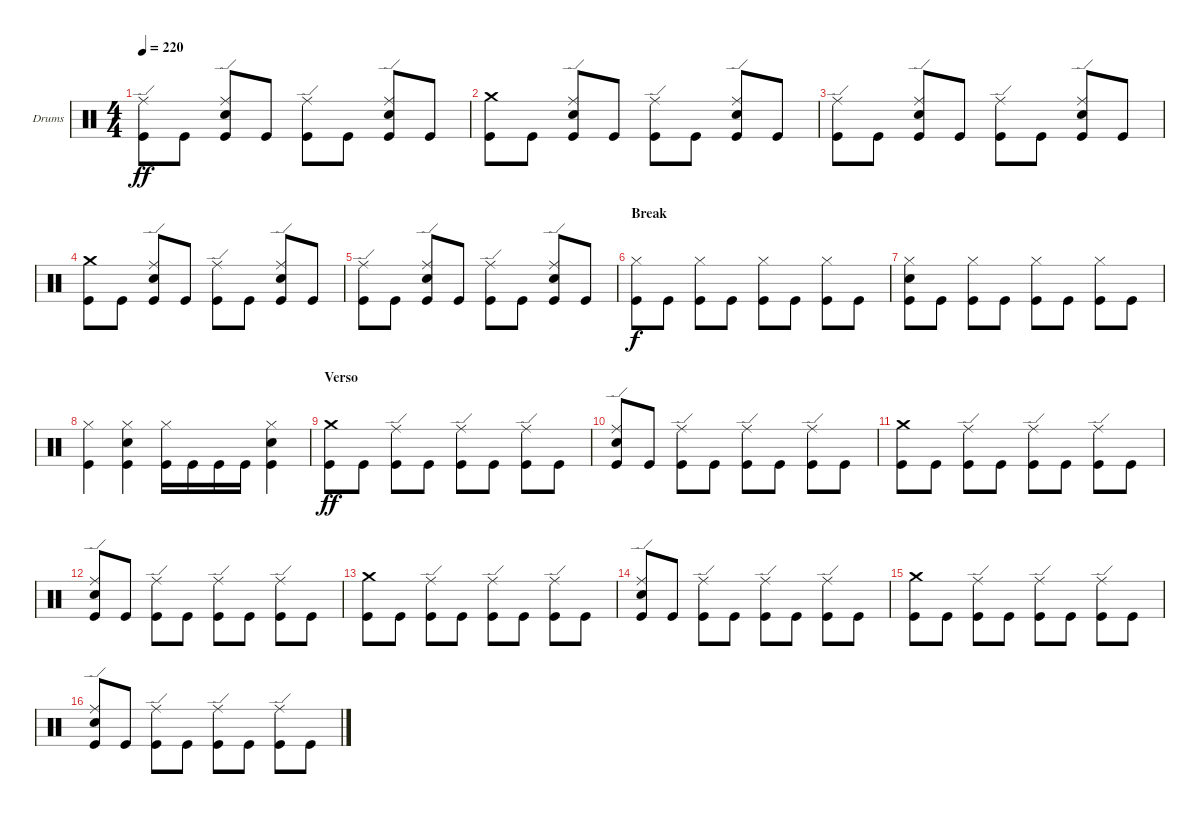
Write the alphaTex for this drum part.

\defaultSystemsLayout 4
\bracketExtendMode groupsimilarinstruments
\firstSystemTrackNameOrientation horizontal
\otherSystemsTrackNameOrientation horizontal
\track ("Drumkit" "Drums") {instrument percussion}
\staff {score}
\articulation defaults
\ts (4 4)
\tempo 220
\clef neutral
\ks c
("Kick (hit)" "Ride (edge)").8{dy ff} "Kick (hit)".8 ("Ride (edge)" "Kick (hit)" "Snare (hit) 2").8 "Kick (hit)".8 ("Ride (edge)" "Kick (hit)").8 "Kick (hit)".8 ("Ride (edge)" "Kick (hit)" "Snare (hit) 2").8 "Kick (hit)".8 |
("Crash medium (hit)" "Kick (hit)").8 "Kick (hit)".8 ("Ride (edge)" "Kick (hit)" "Snare (hit) 2").8 "Kick (hit)".8 ("Ride (edge)" "Kick (hit)").8 "Kick (hit)".8 ("Ride (edge)" "Kick (hit)" "Snare (hit) 2").8 "Kick (hit)".8 |
("Kick (hit)" "Ride (edge)").8 "Kick (hit)".8 ("Ride (edge)" "Kick (hit)" "Snare (hit) 2").8 "Kick (hit)".8 ("Ride (edge)" "Kick (hit)").8 "Kick (hit)".8 ("Ride (edge)" "Kick (hit)" "Snare (hit) 2").8 "Kick (hit)".8 |
("Crash medium (hit)" "Kick (hit)").8 "Kick (hit)".8 ("Ride (edge)" "Kick (hit)" "Snare (hit) 2").8 "Kick (hit)".8 ("Ride (edge)" "Kick (hit)").8 "Kick (hit)".8 ("Ride (edge)" "Kick (hit)" "Snare (hit) 2").8 "Kick (hit)".8 |
("Kick (hit)" "Ride (edge)").8 "Kick (hit)".8 ("Ride (edge)" "Kick (hit)" "Snare (hit) 2").8 "Kick (hit)".8 ("Ride (edge)" "Kick (hit)").8 "Kick (hit)".8 ("Ride (edge)" "Kick (hit)" "Snare (hit) 2").8 "Kick (hit)".8 |
\section ("" "Break")
("Hi-Hat (closed)" "Kick (hit)").8{dy f} "Kick (hit)".8 ("Kick (hit)" "Hi-Hat (closed)").8 "Kick (hit)".8 ("Hi-Hat (closed)" "Kick (hit)").8 "Kick (hit)".8 ("Kick (hit)" "Hi-Hat (closed)").8 "Kick (hit)".8 |
("Hi-Hat (closed)" "Kick (hit)" "Snare (hit) 2").8 "Kick (hit)".8 ("Kick (hit)" "Hi-Hat (closed)").8 "Kick (hit)".8 ("Hi-Hat (closed)" "Kick (hit)").8 "Kick (hit)".8 ("Kick (hit)" "Hi-Hat (closed)").8 "Kick (hit)".8 |
("Hi-Hat (closed)" "Kick (hit)").4 ("Hi-Hat (closed)" "Snare (hit) 2" "Kick (hit)").4 ("Hi-Hat (closed)" "Kick (hit)").16 "Kick (hit)".16 "Kick (hit)".16 "Kick (hit)".16 ("Hi-Hat (closed)" "Snare (hit) 2" "Kick (hit)").4 |
\section ("" "Verso")
("Crash medium (hit)" "Kick (hit)").8{dy ff} "Kick (hit)".8 ("Ride (edge)" "Kick (hit)").8 "Kick (hit)".8 ("Ride (edge)" "Kick (hit)").8 "Kick (hit)".8 ("Ride (edge)" "Kick (hit)").8 "Kick (hit)".8 |
("Kick (hit)" "Ride (edge)" "Snare (hit) 2").8 "Kick (hit)".8 ("Ride (edge)" "Kick (hit)").8 "Kick (hit)".8 ("Ride (edge)" "Kick (hit)").8 "Kick (hit)".8 ("Ride (edge)" "Kick (hit)").8 "Kick (hit)".8 |
("Crash medium (hit)" "Kick (hit)").8 "Kick (hit)".8 ("Ride (edge)" "Kick (hit)").8 "Kick (hit)".8 ("Ride (edge)" "Kick (hit)").8 "Kick (hit)".8 ("Ride (edge)" "Kick (hit)").8 "Kick (hit)".8 |
("Kick (hit)" "Ride (edge)" "Snare (hit) 2").8 "Kick (hit)".8 ("Ride (edge)" "Kick (hit)").8 "Kick (hit)".8 ("Ride (edge)" "Kick (hit)").8 "Kick (hit)".8 ("Ride (edge)" "Kick (hit)").8 "Kick (hit)".8 |
("Crash medium (hit)" "Kick (hit)").8 "Kick (hit)".8 ("Ride (edge)" "Kick (hit)").8 "Kick (hit)".8 ("Ride (edge)" "Kick (hit)").8 "Kick (hit)".8 ("Ride (edge)" "Kick (hit)").8 "Kick (hit)".8 |
("Kick (hit)" "Ride (edge)" "Snare (hit) 2").8 "Kick (hit)".8 ("Ride (edge)" "Kick (hit)").8 "Kick (hit)".8 ("Ride (edge)" "Kick (hit)").8 "Kick (hit)".8 ("Ride (edge)" "Kick (hit)").8 "Kick (hit)".8 |
("Crash medium (hit)" "Kick (hit)").8 "Kick (hit)".8 ("Ride (edge)" "Kick (hit)").8 "Kick (hit)".8 ("Ride (edge)" "Kick (hit)").8 "Kick (hit)".8 ("Ride (edge)" "Kick (hit)").8 "Kick (hit)".8 |
("Kick (hit)" "Ride (edge)" "Snare (hit) 2").8 "Kick (hit)".8 ("Ride (edge)" "Kick (hit)").8 "Kick (hit)".8 ("Ride (edge)" "Kick (hit)").8 "Kick (hit)".8 ("Ride (edge)" "Kick (hit)").8 "Kick (hit)".8
